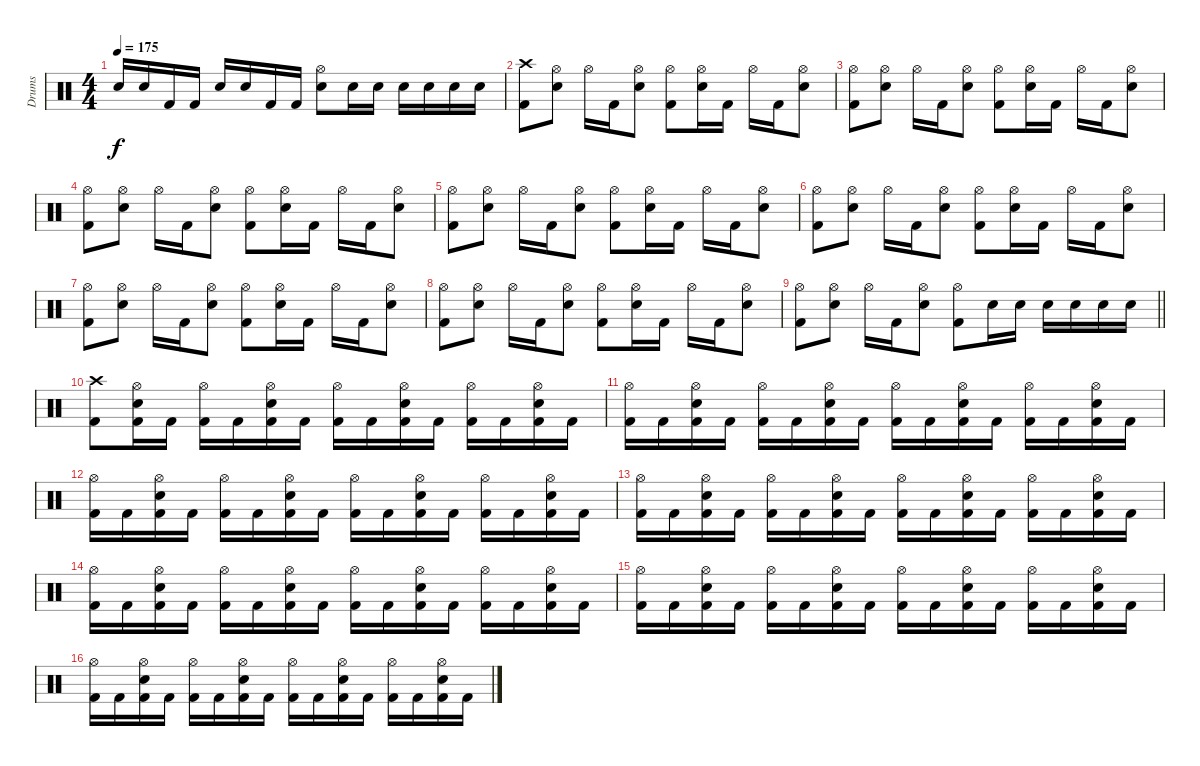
\track ("Drums" "Drums") {instrument percussion}
\staff {score}
\articulation defaults
\ts (4 4)
\tempo 175
\clef neutral
\ks c "Snare (hit) 2".16{dy f} "Snare (hit) 2".16 "Kick (hit) 2".16 "Kick (hit) 2".16 "Snare (hit) 2".16 "Snare (hit) 2".16 "Kick (hit) 2".16 "Kick (hit) 2".16
("Hi-Hat (open)" "Snare (hit) 2").8 "Snare (hit) 2".16 "Snare (hit) 2".16 "Snare (hit) 2".16 "Snare (hit) 2".16 "Snare (hit) 2".16 "Snare (hit) 2".16 |
("Crash high (hit)" "Kick (hit) 2").8 ("Hi-Hat (open)" "Snare (hit) 2").8 "Hi-Hat (open)".16 "Kick (hit) 2".16 ("Hi-Hat (open)" "Snare (hit) 2").8 ("Hi-Hat (open)" "Kick (hit) 2").8 ("Hi-Hat (open)" "Snare (hit) 2").16 "Kick (hit) 2".16 "Hi-Hat (open)".16 "Kick (hit) 2".16 ("Hi-Hat (open)" "Snare (hit) 2").8 |
("Hi-Hat (open)" "Kick (hit) 2").8 ("Hi-Hat (open)" "Snare (hit) 2").8 "Hi-Hat (open)".16 "Kick (hit) 2".16 ("Hi-Hat (open)" "Snare (hit) 2").8 ("Hi-Hat (open)" "Kick (hit) 2").8 ("Hi-Hat (open)" "Snare (hit) 2").16 "Kick (hit) 2".16 "Hi-Hat (open)".16 "Kick (hit) 2".16 ("Hi-Hat (open)" "Snare (hit) 2").8 |
("Hi-Hat (open)" "Kick (hit) 2").8 ("Hi-Hat (open)" "Snare (hit) 2").8 "Hi-Hat (open)".16 "Kick (hit) 2".16 ("Hi-Hat (open)" "Snare (hit) 2").8 ("Hi-Hat (open)" "Kick (hit) 2").8 ("Hi-Hat (open)" "Snare (hit) 2").16 "Kick (hit) 2".16 "Hi-Hat (open)".16 "Kick (hit) 2".16 ("Hi-Hat (open)" "Snare (hit) 2").8 |
("Hi-Hat (open)" "Kick (hit) 2").8 ("Hi-Hat (open)" "Snare (hit) 2").8 "Hi-Hat (open)".16 "Kick (hit) 2".16 ("Hi-Hat (open)" "Snare (hit) 2").8 ("Hi-Hat (open)" "Kick (hit) 2").8 ("Hi-Hat (open)" "Snare (hit) 2").16 "Kick (hit) 2".16 "Hi-Hat (open)".16 "Kick (hit) 2".16 ("Hi-Hat (open)" "Snare (hit) 2").8 |
("Hi-Hat (open)" "Kick (hit) 2").8 ("Hi-Hat (open)" "Snare (hit) 2").8 "Hi-Hat (open)".16 "Kick (hit) 2".16 ("Hi-Hat (open)" "Snare (hit) 2").8 ("Hi-Hat (open)" "Kick (hit) 2").8 ("Hi-Hat (open)" "Snare (hit) 2").16 "Kick (hit) 2".16 "Hi-Hat (open)".16 "Kick (hit) 2".16 ("Hi-Hat (open)" "Snare (hit) 2").8 |
("Hi-Hat (open)" "Kick (hit) 2").8 ("Hi-Hat (open)" "Snare (hit) 2").8 "Hi-Hat (open)".16 "Kick (hit) 2".16 ("Hi-Hat (open)" "Snare (hit) 2").8 ("Hi-Hat (open)" "Kick (hit) 2").8 ("Hi-Hat (open)" "Snare (hit) 2").16 "Kick (hit) 2".16 "Hi-Hat (open)".16 "Kick (hit) 2".16 ("Hi-Hat (open)" "Snare (hit) 2").8 |
("Hi-Hat (open)" "Kick (hit) 2").8 ("Hi-Hat (open)" "Snare (hit) 2").8 "Hi-Hat (open)".16 "Kick (hit) 2".16 ("Hi-Hat (open)" "Snare (hit) 2").8 ("Hi-Hat (open)" "Kick (hit) 2").8 ("Hi-Hat (open)" "Snare (hit) 2").16 "Kick (hit) 2".16 "Hi-Hat (open)".16 "Kick (hit) 2".16 ("Hi-Hat (open)" "Snare (hit) 2").8 |
\barLineRight lightlight
("Hi-Hat (open)" "Kick (hit) 2").8 ("Hi-Hat (open)" "Snare (hit) 2").8 "Hi-Hat (open)".16 "Kick (hit) 2".16 ("Hi-Hat (open)" "Snare (hit) 2").8 ("Hi-Hat (open)" "Kick (hit) 2").8 "Snare (hit) 2".16 "Snare (hit) 2".16 "Snare (hit) 2".16 "Snare (hit) 2".16 "Snare (hit) 2".16 "Snare (hit) 2".16 |
("Crash high (hit)" "Kick (hit) 2").8 ("Hi-Hat (open)" "Snare (hit) 2" "Kick (hit) 2").16 "Kick (hit) 2".16 ("Hi-Hat (open)" "Kick (hit) 2").16 "Kick (hit) 2".16 ("Hi-Hat (open)" "Snare (hit) 2" "Kick (hit) 2").16 "Kick (hit) 2".16 ("Hi-Hat (open)" "Kick (hit) 2").16 "Kick (hit) 2".16 ("Hi-Hat (open)" "Snare (hit) 2" "Kick (hit) 2").16 "Kick (hit) 2".16 ("Hi-Hat (open)" "Kick (hit) 2").16 "Kick (hit) 2".16 ("Hi-Hat (open)" "Snare (hit) 2" "Kick (hit) 2").16 "Kick (hit) 2".16 |
("Hi-Hat (open)" "Kick (hit) 2").16 "Kick (hit) 2".16 ("Hi-Hat (open)" "Snare (hit) 2" "Kick (hit) 2").16 "Kick (hit) 2".16 ("Hi-Hat (open)" "Kick (hit) 2").16 "Kick (hit) 2".16 ("Hi-Hat (open)" "Snare (hit) 2" "Kick (hit) 2").16 "Kick (hit) 2".16 ("Hi-Hat (open)" "Kick (hit) 2").16 "Kick (hit) 2".16 ("Hi-Hat (open)" "Snare (hit) 2" "Kick (hit) 2").16 "Kick (hit) 2".16 ("Hi-Hat (open)" "Kick (hit) 2").16 "Kick (hit) 2".16 ("Hi-Hat (open)" "Snare (hit) 2" "Kick (hit) 2").16 "Kick (hit) 2".16 |
("Hi-Hat (open)" "Kick (hit) 2").16 "Kick (hit) 2".16 ("Hi-Hat (open)" "Snare (hit) 2" "Kick (hit) 2").16 "Kick (hit) 2".16 ("Hi-Hat (open)" "Kick (hit) 2").16 "Kick (hit) 2".16 ("Hi-Hat (open)" "Snare (hit) 2" "Kick (hit) 2").16 "Kick (hit) 2".16 ("Hi-Hat (open)" "Kick (hit) 2").16 "Kick (hit) 2".16 ("Hi-Hat (open)" "Snare (hit) 2" "Kick (hit) 2").16 "Kick (hit) 2".16 ("Hi-Hat (open)" "Kick (hit) 2").16 "Kick (hit) 2".16 ("Hi-Hat (open)" "Snare (hit) 2" "Kick (hit) 2").16 "Kick (hit) 2".16 |
("Hi-Hat (open)" "Kick (hit) 2").16 "Kick (hit) 2".16 ("Hi-Hat (open)" "Snare (hit) 2" "Kick (hit) 2").16 "Kick (hit) 2".16 ("Hi-Hat (open)" "Kick (hit) 2").16 "Kick (hit) 2".16 ("Hi-Hat (open)" "Snare (hit) 2" "Kick (hit) 2").16 "Kick (hit) 2".16 ("Hi-Hat (open)" "Kick (hit) 2").16 "Kick (hit) 2".16 ("Hi-Hat (open)" "Snare (hit) 2" "Kick (hit) 2").16 "Kick (hit) 2".16 ("Hi-Hat (open)" "Kick (hit) 2").16 "Kick (hit) 2".16 ("Hi-Hat (open)" "Snare (hit) 2" "Kick (hit) 2").16 "Kick (hit) 2".16 |
("Hi-Hat (open)" "Kick (hit) 2").16 "Kick (hit) 2".16 ("Hi-Hat (open)" "Snare (hit) 2" "Kick (hit) 2").16 "Kick (hit) 2".16 ("Hi-Hat (open)" "Kick (hit) 2").16 "Kick (hit) 2".16 ("Hi-Hat (open)" "Snare (hit) 2" "Kick (hit) 2").16 "Kick (hit) 2".16 ("Hi-Hat (open)" "Kick (hit) 2").16 "Kick (hit) 2".16 ("Hi-Hat (open)" "Snare (hit) 2" "Kick (hit) 2").16 "Kick (hit) 2".16 ("Hi-Hat (open)" "Kick (hit) 2").16 "Kick (hit) 2".16 ("Hi-Hat (open)" "Snare (hit) 2" "Kick (hit) 2").16 "Kick (hit) 2".16 |
("Hi-Hat (open)" "Kick (hit) 2").16 "Kick (hit) 2".16 ("Hi-Hat (open)" "Snare (hit) 2" "Kick (hit) 2").16 "Kick (hit) 2".16 ("Hi-Hat (open)" "Kick (hit) 2").16 "Kick (hit) 2".16 ("Hi-Hat (open)" "Snare (hit) 2" "Kick (hit) 2").16 "Kick (hit) 2".16 ("Hi-Hat (open)" "Kick (hit) 2").16 "Kick (hit) 2".16 ("Hi-Hat (open)" "Snare (hit) 2" "Kick (hit) 2").16 "Kick (hit) 2".16 ("Hi-Hat (open)" "Kick (hit) 2").16 "Kick (hit) 2".16 ("Hi-Hat (open)" "Snare (hit) 2" "Kick (hit) 2").16 "Kick (hit) 2".16 |
("Hi-Hat (open)" "Kick (hit) 2").16 "Kick (hit) 2".16 ("Hi-Hat (open)" "Snare (hit) 2" "Kick (hit) 2").16 "Kick (hit) 2".16 ("Hi-Hat (open)" "Kick (hit) 2").16 "Kick (hit) 2".16 ("Hi-Hat (open)" "Snare (hit) 2" "Kick (hit) 2").16 "Kick (hit) 2".16 ("Hi-Hat (open)" "Kick (hit) 2").16 "Kick (hit) 2".16 ("Hi-Hat (open)" "Snare (hit) 2" "Kick (hit) 2").16 "Kick (hit) 2".16 ("Hi-Hat (open)" "Kick (hit) 2").16 "Kick (hit) 2".16 ("Hi-Hat (open)" "Snare (hit) 2" "Kick (hit) 2").16 "Kick (hit) 2".16
